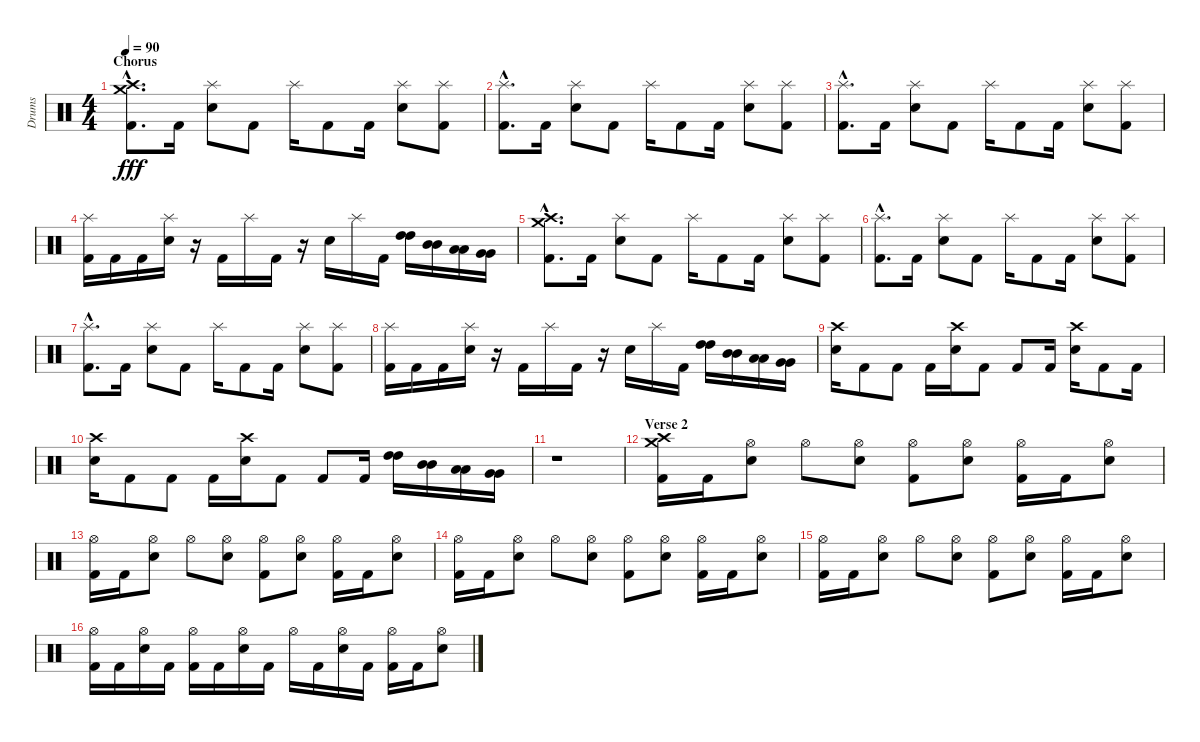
\track ("Drums" "Drums") {instrument percussion}
\staff {score}
\articulation defaults
\ts (4 4)
\section ("" "Chorus")
\tempo 90
\clef neutral
\ks c
("Crash high (hit)"{hac} "Crash medium (hit)"{hac} "Kick (hit) 2"{hac}).8{d dy fff} "Kick (hit) 2".16 ("Splash (hit)" "Electric Snare (hit)").8 "Kick (hit) 2".8 "Splash (hit)".16 "Kick (hit) 2".8 "Kick (hit) 2".16 ("Splash (hit)" "Electric Snare (hit)").8 ("Splash (hit)" "Kick (hit) 2").8 |
("Splash (hit)"{hac} "Kick (hit) 2"{hac}).8{d} "Kick (hit) 2".16 ("Splash (hit)" "Electric Snare (hit)").8 "Kick (hit) 2".8 "Splash (hit)".16 "Kick (hit) 2".8 "Kick (hit) 2".16 ("Splash (hit)" "Electric Snare (hit)").8 ("Splash (hit)" "Kick (hit) 2").8 |
("Splash (hit)"{hac} "Kick (hit) 2"{hac}).8{d} "Kick (hit) 2".16 ("Splash (hit)" "Electric Snare (hit)").8 "Kick (hit) 2".8 "Splash (hit)".16 "Kick (hit) 2".8 "Kick (hit) 2".16 ("Splash (hit)" "Electric Snare (hit)").8 ("Splash (hit)" "Kick (hit) 2").8 |
("Splash (hit)" "Kick (hit) 2").16 "Kick (hit) 2".16 "Kick (hit) 2".16 ("Splash (hit)" "Electric Snare (hit)").16 r.16 "Kick (hit) 2".16 "Splash (hit)".16 "Kick (hit) 2".16 r.16 "Electric Snare (hit)".16 "Splash (hit)".16 "Kick (hit) 2".16 ("High Tom (hit)" "High Tom (hit)").16 ("Mid Tom (hit)" "Mid Tom (hit)").16 ("Low Tom (hit)" "Low Tom (hit)").16 ("Very Low Tom (hit)" "Very Low Tom (hit)").16 |
("Crash high (hit)"{hac} "Crash medium (hit)"{hac} "Kick (hit) 2"{hac}).8{d} "Kick (hit) 2".16 ("Splash (hit)" "Electric Snare (hit)").8 "Kick (hit) 2".8 "Splash (hit)".16 "Kick (hit) 2".8 "Kick (hit) 2".16 ("Splash (hit)" "Electric Snare (hit)").8 ("Splash (hit)" "Kick (hit) 2").8 |
("Splash (hit)"{hac} "Kick (hit) 2"{hac}).8{d} "Kick (hit) 2".16 ("Splash (hit)" "Electric Snare (hit)").8 "Kick (hit) 2".8 "Splash (hit)".16 "Kick (hit) 2".8 "Kick (hit) 2".16 ("Splash (hit)" "Electric Snare (hit)").8 ("Splash (hit)" "Kick (hit) 2").8 |
("Splash (hit)"{hac} "Kick (hit) 2"{hac}).8{d} "Kick (hit) 2".16 ("Splash (hit)" "Electric Snare (hit)").8 "Kick (hit) 2".8 "Splash (hit)".16 "Kick (hit) 2".8 "Kick (hit) 2".16 ("Splash (hit)" "Electric Snare (hit)").8 ("Splash (hit)" "Kick (hit) 2").8 |
("Splash (hit)" "Kick (hit) 2").16 "Kick (hit) 2".16 "Kick (hit) 2".16 ("Splash (hit)" "Electric Snare (hit)").16 r.16 "Kick (hit) 2".16 "Splash (hit)".16 "Kick (hit) 2".16 r.16 "Electric Snare (hit)".16 "Splash (hit)".16 "Kick (hit) 2".16 ("High Tom (hit)" "High Tom (hit)").16 ("Mid Tom (hit)" "Mid Tom (hit)").16 ("Low Tom (hit)" "Low Tom (hit)").16 ("Very Low Tom (hit)" "Very Low Tom (hit)").16 |
("Crash high (hit)" "Electric Snare (hit)").16 "Kick (hit) 2".8 "Kick (hit) 2".8 "Kick (hit) 2".16 ("Crash high (hit)" "Electric Snare (hit)").16 "Kick (hit) 2".8 "Kick (hit) 2".8 "Kick (hit) 2".16 ("Crash high (hit)" "Electric Snare (hit)").16 "Kick (hit) 2".8 "Kick (hit) 2".16 |
("Crash high (hit)" "Electric Snare (hit)").16 "Kick (hit) 2".8 "Kick (hit) 2".8 "Kick (hit) 2".16 ("Crash high (hit)" "Electric Snare (hit)").16 "Kick (hit) 2".8 "Kick (hit) 2".8 "Kick (hit) 2".16 ("High Tom (hit)" "High Tom (hit)").16 ("Mid Tom (hit)" "Mid Tom (hit)").16 ("Low Tom (hit)" "Low Tom (hit)").16 ("Very Low Tom (hit)" "Very Low Tom (hit)").16 |
r.1 |
\section ("" "Verse 2")
("Crash high (hit)" "Crash medium (hit)" "Kick (hit) 2").16 "Kick (hit) 2".16 ("Hi-Hat (open)" "Electric Snare (hit)").8 "Hi-Hat (open)".8 ("Hi-Hat (open)" "Electric Snare (hit)").8 ("Hi-Hat (open)" "Kick (hit) 2").8 ("Hi-Hat (open)" "Electric Snare (hit)").8 ("Hi-Hat (open)" "Kick (hit) 2").16 "Kick (hit) 2".16 ("Hi-Hat (open)" "Electric Snare (hit)").8 |
("Hi-Hat (open)" "Kick (hit) 2").16 "Kick (hit) 2".16 ("Hi-Hat (open)" "Electric Snare (hit)").8 "Hi-Hat (open)".8 ("Hi-Hat (open)" "Electric Snare (hit)").8 ("Hi-Hat (open)" "Kick (hit) 2").8 ("Hi-Hat (open)" "Electric Snare (hit)").8 ("Hi-Hat (open)" "Kick (hit) 2").16 "Kick (hit) 2".16 ("Hi-Hat (open)" "Electric Snare (hit)").8 |
("Hi-Hat (open)" "Kick (hit) 2").16 "Kick (hit) 2".16 ("Hi-Hat (open)" "Electric Snare (hit)").8 "Hi-Hat (open)".8 ("Hi-Hat (open)" "Electric Snare (hit)").8 ("Hi-Hat (open)" "Kick (hit) 2").8 ("Hi-Hat (open)" "Electric Snare (hit)").8 ("Hi-Hat (open)" "Kick (hit) 2").16 "Kick (hit) 2".16 ("Hi-Hat (open)" "Electric Snare (hit)").8 |
("Hi-Hat (open)" "Kick (hit) 2").16 "Kick (hit) 2".16 ("Hi-Hat (open)" "Electric Snare (hit)").8 "Hi-Hat (open)".8 ("Hi-Hat (open)" "Electric Snare (hit)").8 ("Hi-Hat (open)" "Kick (hit) 2").8 ("Hi-Hat (open)" "Electric Snare (hit)").8 ("Hi-Hat (open)" "Kick (hit) 2").16 "Kick (hit) 2".16 ("Hi-Hat (open)" "Electric Snare (hit)").8 |
("Hi-Hat (open)" "Kick (hit) 2").16 "Kick (hit) 2".16 ("Hi-Hat (open)" "Electric Snare (hit)").16 "Kick (hit) 2".16 ("Hi-Hat (open)" "Kick (hit) 2").16 "Kick (hit) 2".16 ("Hi-Hat (open)" "Electric Snare (hit)").16 "Kick (hit) 2".16 "Hi-Hat (open)".16 "Kick (hit) 2".16 ("Hi-Hat (open)" "Electric Snare (hit)").16 "Kick (hit) 2".16 ("Hi-Hat (open)" "Kick (hit) 2").16 "Kick (hit) 2".16 ("Hi-Hat (open)" "Electric Snare (hit)").8
